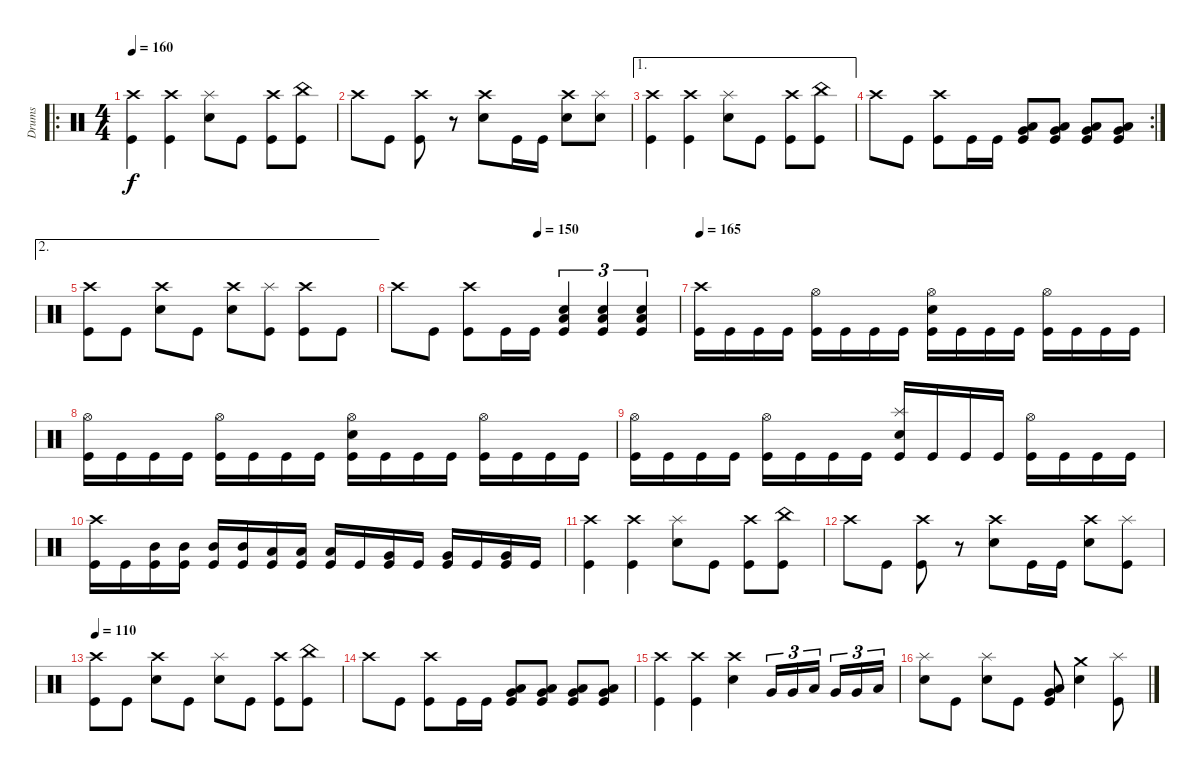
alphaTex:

\track ("Drums" "Drums") {instrument percussion}
\staff {score}
\articulation defaults
\ro
\ts (4 4)
\tempo 160
\clef neutral
\ks c
("Crash high (hit)" "Kick (hit)").4{dy f} ("Crash high (hit)" "Kick (hit)").4 ("Splash (hit)" "Electric Snare (hit)").8 "Kick (hit)".8 ("Crash high (hit)" "Kick (hit)").8 ("China (hit)" "Kick (hit)").8 |
"Crash high (hit)".8 "Kick (hit)".8 ("Crash high (hit)" "Kick (hit)").8 r.8 ("Crash high (hit)" "Electric Snare (hit)").8 "Kick (hit)".16 "Kick (hit)".16 ("Crash high (hit)" "Electric Snare (hit)").8 ("Splash (hit)" "Electric Snare (hit)").8 |
\ae 1
("Crash high (hit)" "Kick (hit)").4 ("Crash high (hit)" "Kick (hit)").4 ("Splash (hit)" "Electric Snare (hit)").8 "Kick (hit)".8 ("Crash high (hit)" "Kick (hit)").8 ("China (hit)" "Kick (hit)").8 |
\rc 2 "Crash high (hit)".8 "Kick (hit)".8
("Crash high (hit)" "Kick (hit)").8 "Kick (hit)".16 "Kick (hit)".16 ("Very Low Tom (hit)" "Low Tom (hit)" "Kick (hit)").8 ("Very Low Tom (hit)" "Low Tom (hit)" "Kick (hit)").8 ("Very Low Tom (hit)" "Low Tom (hit)" "Kick (hit)").8 ("Very Low Tom (hit)" "Low Tom (hit)" "Kick (hit)").8 |
\ae 2
("Crash high (hit)" "Kick (hit)").8 "Kick (hit)".8 ("Crash high (hit)" "Electric Snare (hit)").8 "Kick (hit)".8 ("Crash high (hit)" "Electric Snare (hit)").8 ("Splash (hit)" "Kick (hit)").8 ("Crash high (hit)" "Kick (hit)").8 "Kick (hit)".8 |
\tempo (150 0.5)
"Crash high (hit)".8 "Kick (hit)".8 ("Crash high (hit)" "Kick (hit)").8 "Kick (hit)".16 "Kick (hit)".16 ("Low Floor Tom (hit)" "Electric Snare (hit)" "Kick (hit)").4{tu (3 2)} ("Low Floor Tom (hit)" "Electric Snare (hit)" "Kick (hit)").4{tu (3 2)} ("Low Floor Tom (hit)" "Electric Snare (hit)" "Kick (hit)").4{tu (3 2)} |
\tempo 165
("Crash high (hit)" "Kick (hit)").16 "Kick (hit)".16 "Kick (hit)".16 "Kick (hit)".16 ("Hi-Hat (open)" "Kick (hit)").16 "Kick (hit)".16 "Kick (hit)".16 "Kick (hit)".16 ("Hi-Hat (open)" "Electric Snare (hit)" "Kick (hit)").16 "Kick (hit)".16 "Kick (hit)".16 "Kick (hit)".16 ("Hi-Hat (open)" "Kick (hit)").16 "Kick (hit)".16 "Kick (hit)".16 "Kick (hit)".16 |
("Hi-Hat (open)" "Kick (hit)").16 "Kick (hit)".16 "Kick (hit)".16 "Kick (hit)".16 ("Hi-Hat (open)" "Kick (hit)").16 "Kick (hit)".16 "Kick (hit)".16 "Kick (hit)".16 ("Hi-Hat (open)" "Electric Snare (hit)" "Kick (hit)").16 "Kick (hit)".16 "Kick (hit)".16 "Kick (hit)".16 ("Hi-Hat (open)" "Kick (hit)").16 "Kick (hit)".16 "Kick (hit)".16 "Kick (hit)".16 |
("Hi-Hat (open)" "Kick (hit)").16 "Kick (hit)".16 "Kick (hit)".16 "Kick (hit)".16 ("Hi-Hat (open)" "Kick (hit)").16 "Kick (hit)".16 "Kick (hit)".16 "Kick (hit)".16 ("Splash (hit)" "Electric Snare (hit)" "Kick (hit)").16 "Kick (hit)".16 "Kick (hit)".16 "Kick (hit)".16 ("Hi-Hat (open)" "Kick (hit)").16 "Kick (hit)".16 "Kick (hit)".16 "Kick (hit)".16 |
("Crash high (hit)" "Kick (hit)").16 "Kick (hit)".16 ("Mid Tom (hit)" "Kick (hit)").16 ("Mid Tom (hit)" "Kick (hit)").16 ("Mid Tom (hit)" "Kick (hit)").16 ("Mid Tom (hit)" "Kick (hit)").16 ("Low Tom (hit)" "Kick (hit)").16 ("Low Tom (hit)" "Kick (hit)").16 ("Low Tom (hit)" "Kick (hit)").16 "Kick (hit)".16 ("Very Low Tom (hit)" "Kick (hit)").16 "Kick (hit)".16 ("Very Low Tom (hit)" "Kick (hit)").16 "Kick (hit)".16 ("Very Low Tom (hit)" "Kick (hit)").16 "Kick (hit)".16 |
("Crash high (hit)" "Kick (hit)").4 ("Crash high (hit)" "Kick (hit)").4 ("Splash (hit)" "Electric Snare (hit)").8 "Kick (hit)".8 ("Crash high (hit)" "Kick (hit)").8 ("China (hit)" "Kick (hit)").8 |
"Crash high (hit)".8 "Kick (hit)".8 ("Crash high (hit)" "Kick (hit)").8 r.8 ("Crash high (hit)" "Electric Snare (hit)").8 "Kick (hit)".16 "Kick (hit)".16 ("Crash high (hit)" "Electric Snare (hit)").8 ("Splash (hit)" "Kick (hit)").8 |
\tempo 110
("Crash high (hit)" "Kick (hit)").8 "Kick (hit)".8 ("Crash high (hit)" "Electric Snare (hit)").8 "Kick (hit)".8 ("Splash (hit)" "Electric Snare (hit)").8 "Kick (hit)".8 ("Crash high (hit)" "Kick (hit)").8 ("China (hit)" "Kick (hit)").8 |
"Crash high (hit)".8 "Kick (hit)".8 ("Crash high (hit)" "Kick (hit)").8 "Kick (hit)".16 "Kick (hit)".16 ("Very Low Tom (hit)" "Low Tom (hit)" "Kick (hit)").8 ("Very Low Tom (hit)" "Low Tom (hit)" "Kick (hit)").8 ("Very Low Tom (hit)" "Low Tom (hit)" "Kick (hit)").8 ("Very Low Tom (hit)" "Low Tom (hit)" "Kick (hit)").8 |
("Crash high (hit)" "Kick (hit)").4 ("Crash high (hit)" "Kick (hit)").4 ("Crash high (hit)" "Electric Snare (hit)").4 "Very Low Tom (hit)".16{tu (3 2)} "Very Low Tom (hit)".16{tu (3 2)} "Low Floor Tom (hit)".16{tu (3 2)} "Very Low Tom (hit)".16{tu (3 2)} "Very Low Tom (hit)".16{tu (3 2)} "Low Floor Tom (hit)".16{tu (3 2)} |
("Splash (hit)" "Electric Snare (hit)").8 "Kick (hit)".8 ("Splash (hit)" "Electric Snare (hit)").8 "Kick (hit)".8 ("Low Floor Tom (hit)" "Very Low Tom (hit)" "Kick (hit)").8 ("Crash medium (hit)" "Electric Snare (hit)").4 ("Splash (hit)" "Kick (hit)").8
